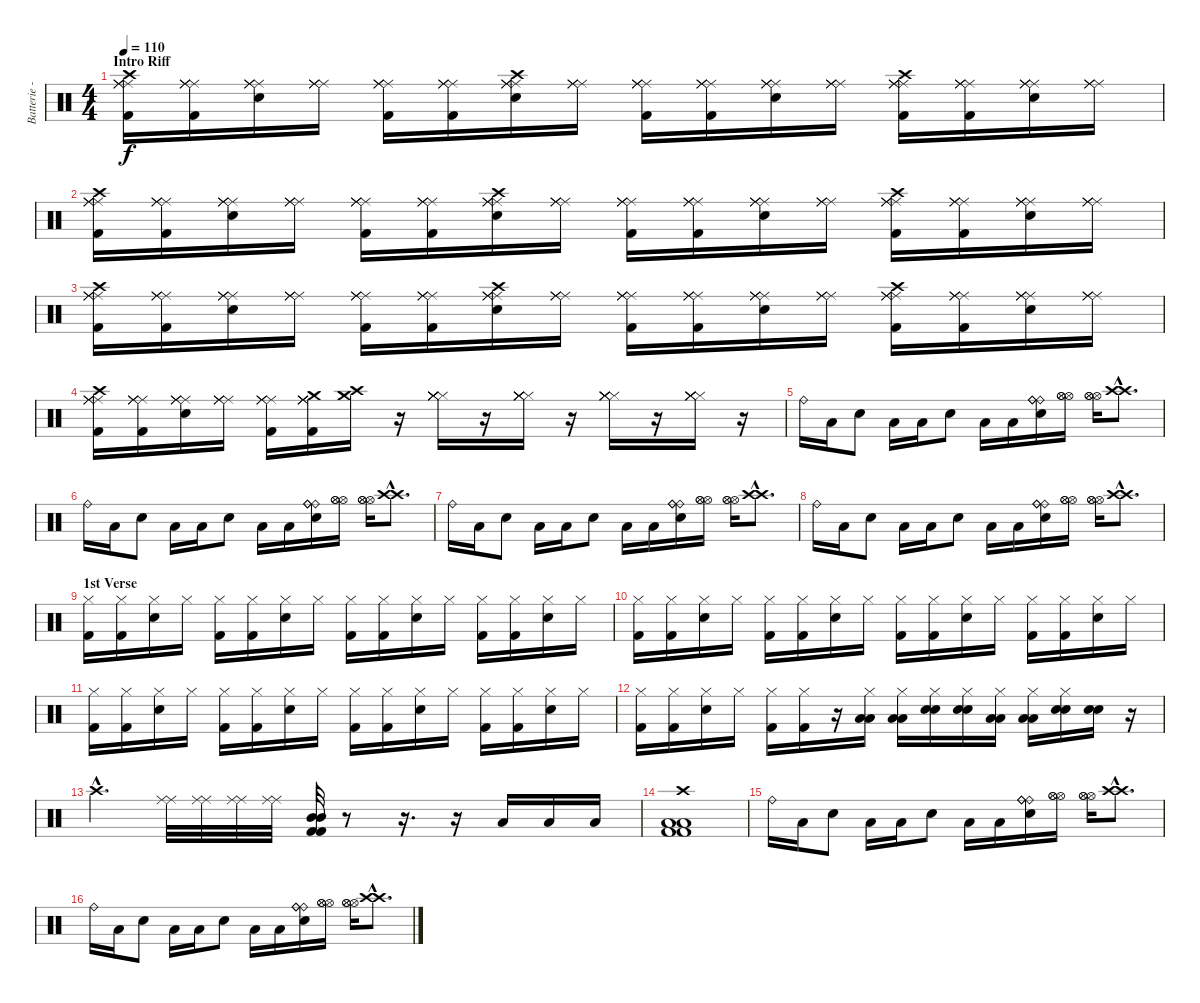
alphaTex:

\track ("Batterie - Travis Barker" "Batterie -") {instrument percussion}
\staff {score}
\articulation defaults
\ts (4 4)
\section ("" "Intro Riff")
\tempo 110
\clef neutral
\ks c
("Ride (middle)" "Crash high (hit)" "Kick (hit) 2" "Ride (middle)" "Ride (middle)" "Ride (middle)").16{dy f} ("Ride (middle)" "Kick (hit) 2" "Ride (middle)" "Ride (middle)" "Ride (middle)").16 ("Ride (middle)" "Snare (hit) 2" "Ride (middle)" "Ride (middle)" "Ride (middle)").16 ("Ride (middle)" "Ride (middle)" "Ride (middle)" "Ride (middle)").16 ("Ride (middle)" "Kick (hit) 2" "Ride (middle)" "Ride (middle)" "Ride (middle)").16 ("Ride (middle)" "Kick (hit) 2" "Ride (middle)" "Ride (middle)" "Ride (middle)").16 ("Ride (middle)" "Crash high (hit)" "Snare (hit) 2" "Ride (middle)" "Ride (middle)" "Ride (middle)").16 ("Ride (middle)" "Ride (middle)" "Ride (middle)" "Ride (middle)").16 ("Ride (middle)" "Kick (hit) 2" "Ride (middle)" "Ride (middle)" "Ride (middle)").16 ("Ride (middle)" "Kick (hit) 2" "Ride (middle)" "Ride (middle)" "Ride (middle)").16 ("Ride (middle)" "Snare (hit) 2" "Ride (middle)" "Ride (middle)" "Ride (middle)").16 ("Ride (middle)" "Ride (middle)" "Ride (middle)" "Ride (middle)").16 ("Ride (middle)" "Crash high (hit)" "Kick (hit) 2" "Ride (middle)" "Ride (middle)" "Ride (middle)").16 ("Ride (middle)" "Kick (hit) 2" "Ride (middle)" "Ride (middle)" "Ride (middle)").16 ("Ride (middle)" "Snare (hit) 2" "Ride (middle)" "Ride (middle)" "Ride (middle)").16 ("Ride (middle)" "Ride (middle)" "Ride (middle)" "Ride (middle)").16 |
("Ride (middle)" "Crash high (hit)" "Kick (hit) 2" "Ride (middle)" "Ride (middle)" "Ride (middle)").16 ("Ride (middle)" "Kick (hit) 2" "Ride (middle)" "Ride (middle)" "Ride (middle)").16 ("Ride (middle)" "Snare (hit) 2" "Ride (middle)" "Ride (middle)" "Ride (middle)").16 ("Ride (middle)" "Ride (middle)" "Ride (middle)" "Ride (middle)").16 ("Ride (middle)" "Kick (hit) 2" "Ride (middle)" "Ride (middle)" "Ride (middle)").16 ("Ride (middle)" "Kick (hit) 2" "Ride (middle)" "Ride (middle)" "Ride (middle)").16 ("Ride (middle)" "Crash high (hit)" "Snare (hit) 2" "Ride (middle)" "Ride (middle)" "Ride (middle)").16 ("Ride (middle)" "Ride (middle)" "Ride (middle)" "Ride (middle)").16 ("Ride (middle)" "Kick (hit) 2" "Ride (middle)" "Ride (middle)" "Ride (middle)").16 ("Ride (middle)" "Kick (hit) 2" "Ride (middle)" "Ride (middle)" "Ride (middle)").16 ("Ride (middle)" "Snare (hit) 2" "Ride (middle)" "Ride (middle)" "Ride (middle)").16 ("Ride (middle)" "Ride (middle)" "Ride (middle)" "Ride (middle)").16 ("Ride (middle)" "Crash high (hit)" "Kick (hit) 2" "Ride (middle)" "Ride (middle)" "Ride (middle)").16 ("Ride (middle)" "Kick (hit) 2" "Ride (middle)" "Ride (middle)" "Ride (middle)").16 ("Ride (middle)" "Snare (hit) 2" "Ride (middle)" "Ride (middle)" "Ride (middle)").16 ("Ride (middle)" "Ride (middle)" "Ride (middle)" "Ride (middle)").16 |
("Ride (middle)" "Crash high (hit)" "Kick (hit) 2" "Ride (middle)" "Ride (middle)" "Ride (middle)").16 ("Ride (middle)" "Kick (hit) 2" "Ride (middle)" "Ride (middle)" "Ride (middle)").16 ("Ride (middle)" "Snare (hit) 2" "Ride (middle)" "Ride (middle)" "Ride (middle)").16 ("Ride (middle)" "Ride (middle)" "Ride (middle)" "Ride (middle)").16 ("Ride (middle)" "Kick (hit) 2" "Ride (middle)" "Ride (middle)" "Ride (middle)").16 ("Ride (middle)" "Kick (hit) 2" "Ride (middle)" "Ride (middle)" "Ride (middle)").16 ("Ride (middle)" "Crash high (hit)" "Snare (hit) 2" "Ride (middle)" "Ride (middle)" "Ride (middle)").16 ("Ride (middle)" "Ride (middle)" "Ride (middle)" "Ride (middle)").16 ("Ride (middle)" "Kick (hit) 2" "Ride (middle)" "Ride (middle)" "Ride (middle)").16 ("Ride (middle)" "Kick (hit) 2" "Ride (middle)" "Ride (middle)" "Ride (middle)").16 ("Ride (middle)" "Snare (hit) 2" "Ride (middle)" "Ride (middle)" "Ride (middle)").16 ("Ride (middle)" "Ride (middle)" "Ride (middle)" "Ride (middle)").16 ("Ride (middle)" "Crash high (hit)" "Kick (hit) 2" "Ride (middle)" "Ride (middle)" "Ride (middle)").16 ("Ride (middle)" "Kick (hit) 2" "Ride (middle)" "Ride (middle)" "Ride (middle)").16 ("Ride (middle)" "Snare (hit) 2" "Ride (middle)" "Ride (middle)" "Ride (middle)").16 ("Ride (middle)" "Ride (middle)" "Ride (middle)" "Ride (middle)").16 |
("Ride (middle)" "Crash high (hit)" "Kick (hit) 2" "Ride (middle)" "Ride (middle)" "Ride (middle)").16 ("Ride (middle)" "Kick (hit) 2" "Ride (middle)" "Ride (middle)" "Ride (middle)").16 ("Ride (middle)" "Snare (hit) 2" "Ride (middle)" "Ride (middle)" "Ride (middle)").16 ("Ride (middle)" "Ride (middle)" "Ride (middle)" "Ride (middle)").16 ("Ride (middle)" "Kick (hit) 2" "Ride (middle)" "Ride (middle)" "Ride (middle)").16 ("Ride (middle)" "Crash medium (hit)" "Kick (hit) 2" "Ride (middle)" "Ride (middle)" "Ride (middle)").16 ("Crash medium (hit)" "Crash high (hit)").16 r.16 ("Hi-Hat (closed)" "Hi-Hat (closed)" "Hi-Hat (closed)" "Hi-Hat (closed)" "Hi-Hat (closed)" "Hi-Hat (closed)").16 r.16 ("Hi-Hat (closed)" "Hi-Hat (closed)" "Hi-Hat (closed)" "Hi-Hat (closed)" "Hi-Hat (closed)" "Hi-Hat (closed)").16 r.16 ("Hi-Hat (closed)" "Hi-Hat (closed)" "Hi-Hat (closed)" "Hi-Hat (closed)" "Hi-Hat (closed)" "Hi-Hat (closed)").16 r.16 ("Hi-Hat (closed)" "Hi-Hat (closed)" "Hi-Hat (closed)" "Hi-Hat (closed)" "Hi-Hat (closed)" "Hi-Hat (closed)").16 r.16 |
"Ride (bell)".16 "Low Floor Tom (hit)".16 "Snare (hit) 2".8 "Low Floor Tom (hit)".16 "Low Floor Tom (hit)".16 "Snare (hit) 2".8 "Low Floor Tom (hit)".16 "Low Floor Tom (hit)".16 ("Snare (hit) 2" "Ride (bell)" "Ride (bell)" "Ride (bell)").16 ("Hi-Hat (open)" "Hi-Hat (open)" "Hi-Hat (open)").16 ("Hi-Hat (open)" "Hi-Hat (open)" "Hi-Hat (open)").16 ("Crash high (hit)"{hac} "Crash high (hit)"{hac}).8{d} |
"Ride (bell)".16 "Low Floor Tom (hit)".16 "Snare (hit) 2".8 "Low Floor Tom (hit)".16 "Low Floor Tom (hit)".16 "Snare (hit) 2".8 "Low Floor Tom (hit)".16 "Low Floor Tom (hit)".16 ("Snare (hit) 2" "Ride (bell)" "Ride (bell)" "Ride (bell)").16 ("Hi-Hat (open)" "Hi-Hat (open)" "Hi-Hat (open)").16 ("Hi-Hat (open)" "Hi-Hat (open)" "Hi-Hat (open)").16 ("Crash high (hit)"{hac} "Crash high (hit)"{hac}).8{d} |
"Ride (bell)".16 "Low Floor Tom (hit)".16 "Snare (hit) 2".8 "Low Floor Tom (hit)".16 "Low Floor Tom (hit)".16 "Snare (hit) 2".8 "Low Floor Tom (hit)".16 "Low Floor Tom (hit)".16 ("Snare (hit) 2" "Ride (bell)" "Ride (bell)" "Ride (bell)").16 ("Hi-Hat (open)" "Hi-Hat (open)" "Hi-Hat (open)").16 ("Hi-Hat (open)" "Hi-Hat (open)" "Hi-Hat (open)").16 ("Crash high (hit)"{hac} "Crash high (hit)"{hac}).8{d} |
"Ride (bell)".16 "Low Floor Tom (hit)".16 "Snare (hit) 2".8 "Low Floor Tom (hit)".16 "Low Floor Tom (hit)".16 "Snare (hit) 2".8 "Low Floor Tom (hit)".16 "Low Floor Tom (hit)".16 ("Snare (hit) 2" "Ride (bell)" "Ride (bell)" "Ride (bell)").16 ("Hi-Hat (open)" "Hi-Hat (open)" "Hi-Hat (open)").16 ("Hi-Hat (open)" "Hi-Hat (open)" "Hi-Hat (open)").16 ("Crash high (hit)"{hac} "Crash high (hit)"{hac}).8{d} |
\section ("" "1st Verse")
("Hi-Hat (closed)" "Kick (hit) 2").16 ("Hi-Hat (closed)" "Kick (hit) 2").16 ("Hi-Hat (closed)" "Snare (hit) 2").16 "Hi-Hat (closed)".16 ("Hi-Hat (closed)" "Kick (hit) 2").16 ("Hi-Hat (closed)" "Kick (hit) 2").16 ("Hi-Hat (closed)" "Snare (hit) 2").16 "Hi-Hat (closed)".16 ("Hi-Hat (closed)" "Kick (hit) 2").16 ("Hi-Hat (closed)" "Kick (hit) 2").16 ("Hi-Hat (closed)" "Snare (hit) 2").16 "Hi-Hat (closed)".16 ("Hi-Hat (closed)" "Kick (hit) 2").16 ("Hi-Hat (closed)" "Kick (hit) 2").16 ("Hi-Hat (closed)" "Snare (hit) 2").16 "Hi-Hat (closed)".16 |
("Hi-Hat (closed)" "Kick (hit) 2").16 ("Hi-Hat (closed)" "Kick (hit) 2").16 ("Hi-Hat (closed)" "Snare (hit) 2").16 "Hi-Hat (closed)".16 ("Hi-Hat (closed)" "Kick (hit) 2").16 ("Hi-Hat (closed)" "Kick (hit) 2").16 ("Hi-Hat (closed)" "Snare (hit) 2").16 "Hi-Hat (closed)".16 ("Hi-Hat (closed)" "Kick (hit) 2").16 ("Hi-Hat (closed)" "Kick (hit) 2").16 ("Hi-Hat (closed)" "Snare (hit) 2").16 "Hi-Hat (closed)".16 ("Hi-Hat (closed)" "Kick (hit) 2").16 ("Hi-Hat (closed)" "Kick (hit) 2").16 ("Hi-Hat (closed)" "Snare (hit) 2").16 "Hi-Hat (closed)".16 |
("Hi-Hat (closed)" "Kick (hit) 2").16 ("Hi-Hat (closed)" "Kick (hit) 2").16 ("Hi-Hat (closed)" "Snare (hit) 2").16 "Hi-Hat (closed)".16 ("Hi-Hat (closed)" "Kick (hit) 2").16 ("Hi-Hat (closed)" "Kick (hit) 2").16 ("Hi-Hat (closed)" "Snare (hit) 2").16 "Hi-Hat (closed)".16 ("Hi-Hat (closed)" "Kick (hit) 2").16 ("Hi-Hat (closed)" "Kick (hit) 2").16 ("Hi-Hat (closed)" "Snare (hit) 2").16 "Hi-Hat (closed)".16 ("Hi-Hat (closed)" "Kick (hit) 2").16 ("Hi-Hat (closed)" "Kick (hit) 2").16 ("Hi-Hat (closed)" "Snare (hit) 2").16 "Hi-Hat (closed)".16 |
("Hi-Hat (closed)" "Kick (hit) 2").16 ("Hi-Hat (closed)" "Kick (hit) 2").16 ("Hi-Hat (closed)" "Snare (hit) 2").16 "Hi-Hat (closed)".16 ("Hi-Hat (closed)" "Kick (hit) 2").16 ("Hi-Hat (closed)" "Kick (hit) 2").16 r.16 ("Hi-Hat (closed)" "Low Floor Tom (hit)" "Low Floor Tom (hit)").16 ("Hi-Hat (closed)" "Low Floor Tom (hit)" "Low Floor Tom (hit)").16 ("Hi-Hat (closed)" "Snare (hit) 2" "Snare (hit) 2").16 ("Hi-Hat (closed)" "Snare (hit) 2" "Snare (hit) 2").16 ("Hi-Hat (closed)" "Low Floor Tom (hit)" "Low Floor Tom (hit)").16 ("Hi-Hat (closed)" "Low Floor Tom (hit)" "Low Floor Tom (hit)").16 ("Hi-Hat (closed)" "Snare (hit) 2" "Snare (hit) 2").16 ("Snare (hit) 2" "Snare (hit) 2").16 r.16 |
"Crash high (hit)"{hac}.4{d} ("Ride (middle)" "Ride (middle)").32 ("Ride (middle)" "Ride (middle)").32 ("Ride (middle)" "Ride (middle)").32 ("Ride (middle)" "Ride (middle)").32 ("Mid Tom (hit)" "Mid Tom (hit)" "Kick (hit) 2" "Kick (hit) 2").32 r.8 r.16{d} r.16 "Low Floor Tom (hit)".16 "Low Floor Tom (hit)".16 "Low Floor Tom (hit)".16 |
("Kick (hit) 2" "Kick (hit) 2" "Low Floor Tom (hit)" "Low Floor Tom (hit)" "Crash high (hit)").1 |
"Ride (bell)".16 "Low Floor Tom (hit)".16 "Snare (hit) 2".8 "Low Floor Tom (hit)".16 "Low Floor Tom (hit)".16 "Snare (hit) 2".8 "Low Floor Tom (hit)".16 "Low Floor Tom (hit)".16 ("Snare (hit) 2" "Ride (bell)" "Ride (bell)" "Ride (bell)").16 ("Hi-Hat (open)" "Hi-Hat (open)" "Hi-Hat (open)").16 ("Hi-Hat (open)" "Hi-Hat (open)" "Hi-Hat (open)").16 ("Crash high (hit)"{hac} "Crash high (hit)"{hac}).8{d} |
"Ride (bell)".16 "Low Floor Tom (hit)".16 "Snare (hit) 2".8 "Low Floor Tom (hit)".16 "Low Floor Tom (hit)".16 "Snare (hit) 2".8 "Low Floor Tom (hit)".16 "Low Floor Tom (hit)".16 ("Snare (hit) 2" "Ride (bell)" "Ride (bell)" "Ride (bell)").16 ("Hi-Hat (open)" "Hi-Hat (open)" "Hi-Hat (open)").16 ("Hi-Hat (open)" "Hi-Hat (open)" "Hi-Hat (open)").16 ("Crash high (hit)"{hac} "Crash high (hit)"{hac}).8{d}
